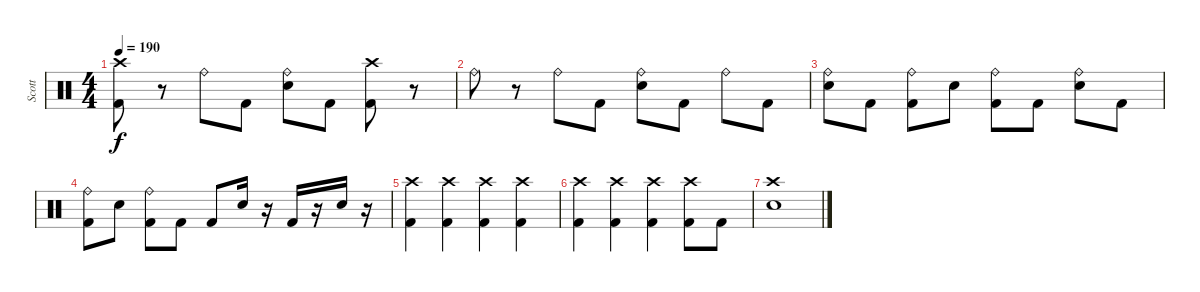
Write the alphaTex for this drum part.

\track ("Scott" "Scott") {instrument percussion}
\staff {score}
\articulation defaults
\ts (4 4)
\tempo 190
\clef neutral
\ks c
("Crash high (hit)" "Kick (hit) 2").8{dy f} r.8 "Ride (bell)".8 "Kick (hit) 2".8 ("Ride (bell)" "Electric Snare (hit)").8 "Kick (hit) 2".8 ("Crash high (hit)" "Kick (hit) 2").8 r.8 |
"Ride (bell)".8 r.8 "Ride (bell)".8 "Kick (hit) 2".8 ("Ride (bell)" "Electric Snare (hit)").8 "Kick (hit) 2".8 "Ride (bell)".8 "Kick (hit) 2".8 |
("Ride (bell)" "Electric Snare (hit)").8 "Kick (hit) 2".8 ("Ride (bell)" "Kick (hit) 2").8 "Electric Snare (hit)".8 ("Ride (bell)" "Kick (hit) 2").8 "Kick (hit) 2".8 ("Ride (bell)" "Electric Snare (hit)").8 "Kick (hit) 2".8 |
("Ride (bell)" "Kick (hit) 2").8 "Electric Snare (hit)".8 ("Ride (bell)" "Kick (hit) 2").8 "Kick (hit) 2".8 "Kick (hit) 2".8 "Electric Snare (hit)".16 r.16 "Kick (hit) 2".16 r.16 "Electric Snare (hit)".16 r.16 |
("Crash high (hit)" "Kick (hit) 2").4 ("Crash high (hit)" "Kick (hit) 2").4 ("Crash high (hit)" "Kick (hit) 2").4 ("Crash high (hit)" "Kick (hit) 2").4 |
("Crash high (hit)" "Kick (hit) 2").4 ("Crash high (hit)" "Kick (hit) 2").4 ("Crash high (hit)" "Kick (hit) 2").4 ("Crash high (hit)" "Kick (hit) 2").8 "Kick (hit) 2".8 |
("Crash high (hit)" "Electric Snare (hit)").1
